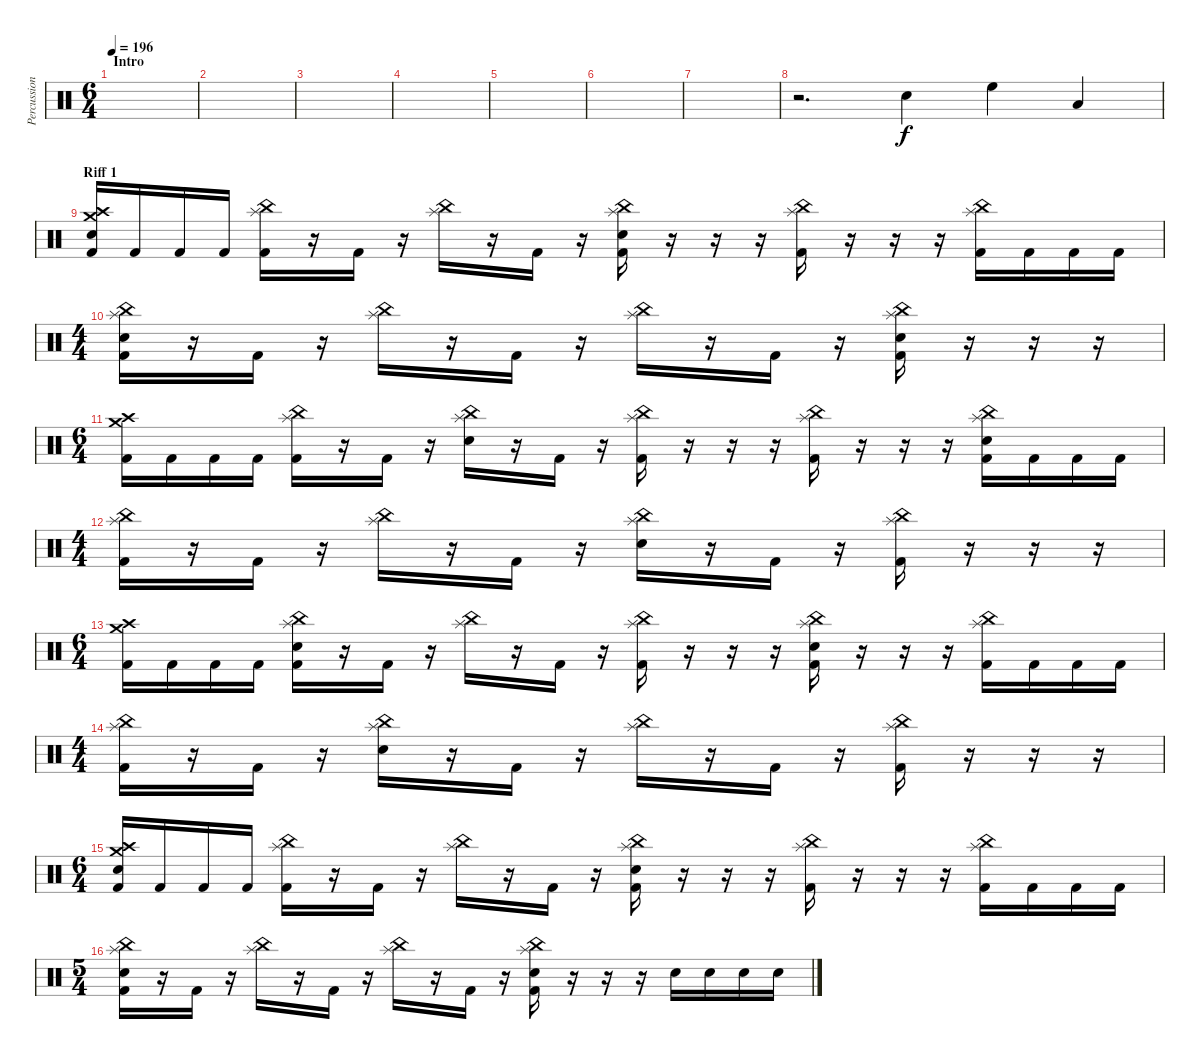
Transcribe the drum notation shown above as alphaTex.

\track ("Percussion" "Percussion") {instrument percussion}
\staff {score}
\articulation defaults
\ts (6 4)
\section ("" "Intro")
\tempo 196
\clef neutral
\ks c
|
|
|
|
|
|
|
r.2{d} "Electric Snare (hit)".4 "High Floor Tom (hit)".4 "Low Tom (hit)".4 |
\section ("" "Riff 1")
("Crash medium (hit)" "Crash high (hit)" "Electric Snare (hit)" "Kick (hit) 2").16 "Kick (hit) 2".16 "Kick (hit) 2".16 "Kick (hit) 2".16 ("Splash (hit)" "China (hit)" "Kick (hit) 2").16 r.16 "Kick (hit) 2".16 r.16 ("Splash (hit)" "China (hit)").16 r.16 "Kick (hit) 2".16 r.16 ("Splash (hit)" "China (hit)" "Electric Snare (hit)" "Kick (hit) 2").16 r.16 r.16 r.16 ("Splash (hit)" "China (hit)" "Kick (hit) 2").16 r.16 r.16 r.16 ("Splash (hit)" "China (hit)" "Kick (hit) 2").16 "Kick (hit) 2".16 "Kick (hit) 2".16 "Kick (hit) 2".16 |
\ts (4 4)
("Splash (hit)" "China (hit)" "Electric Snare (hit)" "Kick (hit) 2").16 r.16 "Kick (hit) 2".16 r.16 ("Splash (hit)" "China (hit)").16 r.16 "Kick (hit) 2".16 r.16 ("Splash (hit)" "China (hit)").16 r.16 "Kick (hit) 2".16 r.16 ("Splash (hit)" "China (hit)" "Electric Snare (hit)" "Kick (hit) 2").16 r.16 r.16 r.16 |
\ts (6 4)
("Crash medium (hit)" "Crash high (hit)" "Kick (hit) 2").16 "Kick (hit) 2".16 "Kick (hit) 2".16 "Kick (hit) 2".16 ("Splash (hit)" "China (hit)" "Kick (hit) 2").16 r.16 "Kick (hit) 2".16 r.16 ("Splash (hit)" "China (hit)" "Electric Snare (hit)").16 r.16 "Kick (hit) 2".16 r.16 ("Splash (hit)" "China (hit)" "Kick (hit) 2").16 r.16 r.16 r.16 ("Splash (hit)" "China (hit)" "Kick (hit) 2").16 r.16 r.16 r.16 ("Splash (hit)" "China (hit)" "Electric Snare (hit)" "Kick (hit) 2").16 "Kick (hit) 2".16 "Kick (hit) 2".16 "Kick (hit) 2".16 |
\ts (4 4)
("Splash (hit)" "China (hit)" "Kick (hit) 2").16 r.16 "Kick (hit) 2".16 r.16 ("Splash (hit)" "China (hit)").16 r.16 "Kick (hit) 2".16 r.16 ("Splash (hit)" "China (hit)" "Electric Snare (hit)").16 r.16 "Kick (hit) 2".16 r.16 ("Splash (hit)" "China (hit)" "Kick (hit) 2").16 r.16 r.16 r.16 |
\ts (6 4)
("Crash medium (hit)" "Crash high (hit)" "Kick (hit) 2").16 "Kick (hit) 2".16 "Kick (hit) 2".16 "Kick (hit) 2".16 ("Splash (hit)" "China (hit)" "Electric Snare (hit)" "Kick (hit) 2").16 r.16 "Kick (hit) 2".16 r.16 ("Splash (hit)" "China (hit)").16 r.16 "Kick (hit) 2".16 r.16 ("Splash (hit)" "China (hit)" "Kick (hit) 2").16 r.16 r.16 r.16 ("Splash (hit)" "China (hit)" "Electric Snare (hit)" "Kick (hit) 2").16 r.16 r.16 r.16 ("Splash (hit)" "China (hit)" "Kick (hit) 2").16 "Kick (hit) 2".16 "Kick (hit) 2".16 "Kick (hit) 2".16 |
\ts (4 4)
("Splash (hit)" "China (hit)" "Kick (hit) 2").16 r.16 "Kick (hit) 2".16 r.16 ("Splash (hit)" "China (hit)" "Electric Snare (hit)").16 r.16 "Kick (hit) 2".16 r.16 ("Splash (hit)" "China (hit)").16 r.16 "Kick (hit) 2".16 r.16 ("Splash (hit)" "China (hit)" "Kick (hit) 2").16 r.16 r.16 r.16 |
\ts (6 4)
("Crash medium (hit)" "Crash high (hit)" "Electric Snare (hit)" "Kick (hit) 2").16 "Kick (hit) 2".16 "Kick (hit) 2".16 "Kick (hit) 2".16 ("Splash (hit)" "China (hit)" "Kick (hit) 2").16 r.16 "Kick (hit) 2".16 r.16 ("Splash (hit)" "China (hit)").16 r.16 "Kick (hit) 2".16 r.16 ("Splash (hit)" "China (hit)" "Electric Snare (hit)" "Kick (hit) 2").16 r.16 r.16 r.16 ("Splash (hit)" "China (hit)" "Kick (hit) 2").16 r.16 r.16 r.16 ("Splash (hit)" "China (hit)" "Kick (hit) 2").16 "Kick (hit) 2".16 "Kick (hit) 2".16 "Kick (hit) 2".16 |
\ts (5 4)
("Splash (hit)" "China (hit)" "Electric Snare (hit)" "Kick (hit) 2").16 r.16 "Kick (hit) 2".16 r.16 ("Splash (hit)" "China (hit)").16 r.16 "Kick (hit) 2".16 r.16 ("Splash (hit)" "China (hit)").16 r.16 "Kick (hit) 2".16 r.16 ("Splash (hit)" "China (hit)" "Electric Snare (hit)" "Kick (hit) 2").16 r.16 r.16 r.16 "Electric Snare (hit)".16 "Electric Snare (hit)".16 "Electric Snare (hit)".16 "Electric Snare (hit)".16
